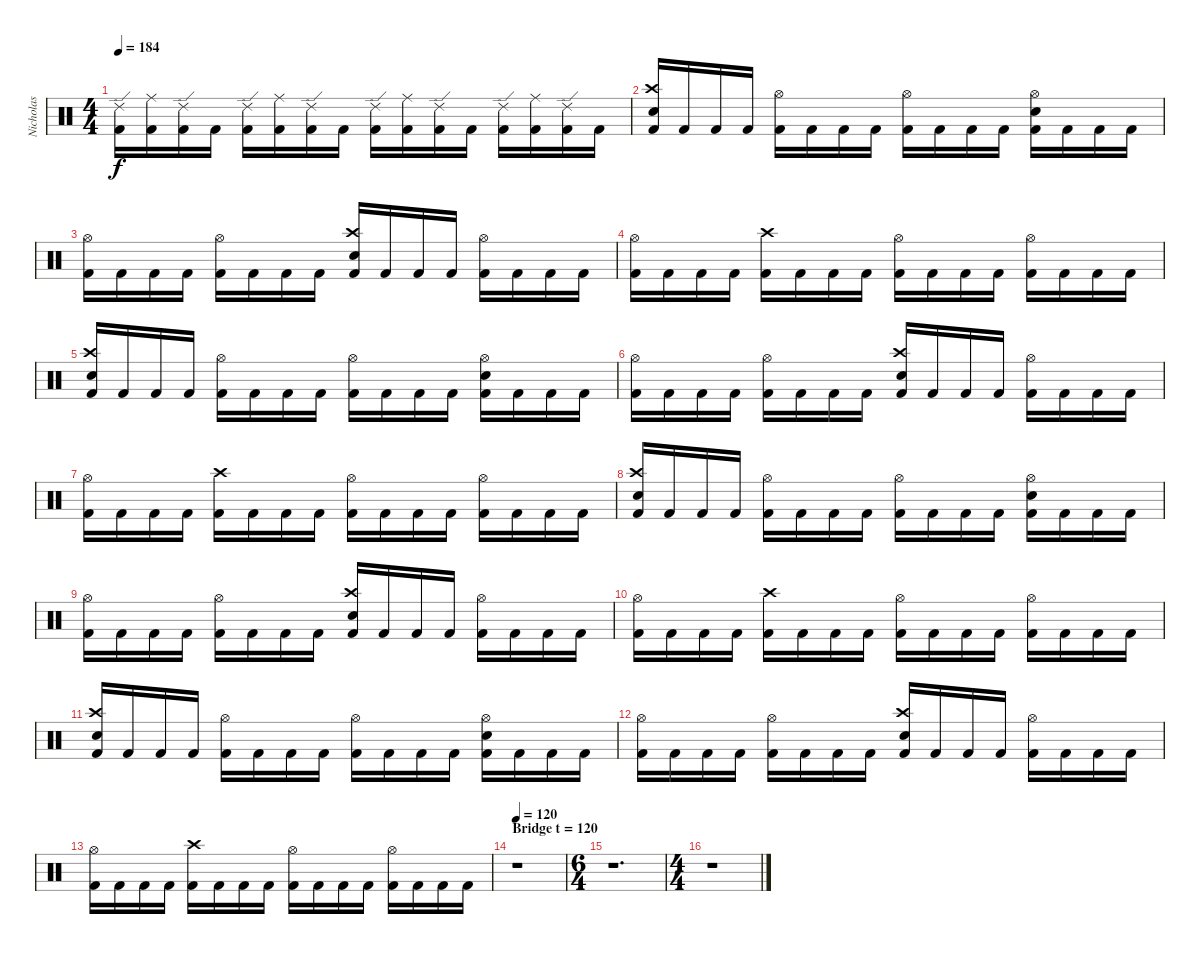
\track ("Nicholas" "Nicholas") {instrument percussion}
\staff {score}
\articulation defaults
\ts (4 4)
\tempo 184
\clef neutral
\ks c
("Ride (edge) 2" "Kick (hit) 2").16{dy f} ("Ride (middle)" "Kick (hit) 2").16 ("Ride (edge) 2" "Kick (hit) 2").16 "Kick (hit) 2".16 ("Ride (edge) 2" "Kick (hit) 2").16 ("Ride (middle)" "Kick (hit) 2").16 ("Ride (edge) 2" "Kick (hit) 2").16 "Kick (hit) 2".16 ("Ride (edge) 2" "Kick (hit) 2").16 ("Ride (middle)" "Kick (hit) 2").16 ("Ride (edge) 2" "Kick (hit) 2").16 "Kick (hit) 2".16 ("Ride (edge) 2" "Kick (hit) 2").16 ("Ride (middle)" "Kick (hit) 2").16 ("Ride (edge) 2" "Kick (hit) 2").16 "Kick (hit) 2".16 |
("Crash high (hit)" "Electric Snare (hit)" "Kick (hit) 2").16 "Kick (hit) 2".16 "Kick (hit) 2".16 "Kick (hit) 2".16 ("Hi-Hat (open)" "Kick (hit) 2").16 "Kick (hit) 2".16 "Kick (hit) 2".16 "Kick (hit) 2".16 ("Hi-Hat (open)" "Kick (hit) 2").16 "Kick (hit) 2".16 "Kick (hit) 2".16 "Kick (hit) 2".16 ("Hi-Hat (open)" "Electric Snare (hit)" "Kick (hit) 2").16 "Kick (hit) 2".16 "Kick (hit) 2".16 "Kick (hit) 2".16 |
("Hi-Hat (open)" "Kick (hit) 2").16 "Kick (hit) 2".16 "Kick (hit) 2".16 "Kick (hit) 2".16 ("Hi-Hat (open)" "Kick (hit) 2").16 "Kick (hit) 2".16 "Kick (hit) 2".16 "Kick (hit) 2".16 ("Crash high (hit)" "Electric Snare (hit)" "Kick (hit) 2").16 "Kick (hit) 2".16 "Kick (hit) 2".16 "Kick (hit) 2".16 ("Hi-Hat (open)" "Kick (hit) 2").16 "Kick (hit) 2".16 "Kick (hit) 2".16 "Kick (hit) 2".16 |
("Hi-Hat (open)" "Kick (hit) 2").16 "Kick (hit) 2".16 "Kick (hit) 2".16 "Kick (hit) 2".16 ("Crash high (hit)" "Kick (hit) 2").16 "Kick (hit) 2".16 "Kick (hit) 2".16 "Kick (hit) 2".16 ("Hi-Hat (open)" "Kick (hit) 2").16 "Kick (hit) 2".16 "Kick (hit) 2".16 "Kick (hit) 2".16 ("Hi-Hat (open)" "Kick (hit) 2").16 "Kick (hit) 2".16 "Kick (hit) 2".16 "Kick (hit) 2".16 |
("Crash high (hit)" "Electric Snare (hit)" "Kick (hit) 2").16 "Kick (hit) 2".16 "Kick (hit) 2".16 "Kick (hit) 2".16 ("Hi-Hat (open)" "Kick (hit) 2").16 "Kick (hit) 2".16 "Kick (hit) 2".16 "Kick (hit) 2".16 ("Hi-Hat (open)" "Kick (hit) 2").16 "Kick (hit) 2".16 "Kick (hit) 2".16 "Kick (hit) 2".16 ("Hi-Hat (open)" "Electric Snare (hit)" "Kick (hit) 2").16 "Kick (hit) 2".16 "Kick (hit) 2".16 "Kick (hit) 2".16 |
("Hi-Hat (open)" "Kick (hit) 2").16 "Kick (hit) 2".16 "Kick (hit) 2".16 "Kick (hit) 2".16 ("Hi-Hat (open)" "Kick (hit) 2").16 "Kick (hit) 2".16 "Kick (hit) 2".16 "Kick (hit) 2".16 ("Crash high (hit)" "Electric Snare (hit)" "Kick (hit) 2").16 "Kick (hit) 2".16 "Kick (hit) 2".16 "Kick (hit) 2".16 ("Hi-Hat (open)" "Kick (hit) 2").16 "Kick (hit) 2".16 "Kick (hit) 2".16 "Kick (hit) 2".16 |
("Hi-Hat (open)" "Kick (hit) 2").16 "Kick (hit) 2".16 "Kick (hit) 2".16 "Kick (hit) 2".16 ("Crash high (hit)" "Kick (hit) 2").16 "Kick (hit) 2".16 "Kick (hit) 2".16 "Kick (hit) 2".16 ("Hi-Hat (open)" "Kick (hit) 2").16 "Kick (hit) 2".16 "Kick (hit) 2".16 "Kick (hit) 2".16 ("Hi-Hat (open)" "Kick (hit) 2").16 "Kick (hit) 2".16 "Kick (hit) 2".16 "Kick (hit) 2".16 |
("Crash high (hit)" "Electric Snare (hit)" "Kick (hit) 2").16 "Kick (hit) 2".16 "Kick (hit) 2".16 "Kick (hit) 2".16 ("Hi-Hat (open)" "Kick (hit) 2").16 "Kick (hit) 2".16 "Kick (hit) 2".16 "Kick (hit) 2".16 ("Hi-Hat (open)" "Kick (hit) 2").16 "Kick (hit) 2".16 "Kick (hit) 2".16 "Kick (hit) 2".16 ("Hi-Hat (open)" "Electric Snare (hit)" "Kick (hit) 2").16 "Kick (hit) 2".16 "Kick (hit) 2".16 "Kick (hit) 2".16 |
("Hi-Hat (open)" "Kick (hit) 2").16 "Kick (hit) 2".16 "Kick (hit) 2".16 "Kick (hit) 2".16 ("Hi-Hat (open)" "Kick (hit) 2").16 "Kick (hit) 2".16 "Kick (hit) 2".16 "Kick (hit) 2".16 ("Crash high (hit)" "Electric Snare (hit)" "Kick (hit) 2").16 "Kick (hit) 2".16 "Kick (hit) 2".16 "Kick (hit) 2".16 ("Hi-Hat (open)" "Kick (hit) 2").16 "Kick (hit) 2".16 "Kick (hit) 2".16 "Kick (hit) 2".16 |
("Hi-Hat (open)" "Kick (hit) 2").16 "Kick (hit) 2".16 "Kick (hit) 2".16 "Kick (hit) 2".16 ("Crash high (hit)" "Kick (hit) 2").16 "Kick (hit) 2".16 "Kick (hit) 2".16 "Kick (hit) 2".16 ("Hi-Hat (open)" "Kick (hit) 2").16 "Kick (hit) 2".16 "Kick (hit) 2".16 "Kick (hit) 2".16 ("Hi-Hat (open)" "Kick (hit) 2").16 "Kick (hit) 2".16 "Kick (hit) 2".16 "Kick (hit) 2".16 |
("Crash high (hit)" "Electric Snare (hit)" "Kick (hit) 2").16 "Kick (hit) 2".16 "Kick (hit) 2".16 "Kick (hit) 2".16 ("Hi-Hat (open)" "Kick (hit) 2").16 "Kick (hit) 2".16 "Kick (hit) 2".16 "Kick (hit) 2".16 ("Hi-Hat (open)" "Kick (hit) 2").16 "Kick (hit) 2".16 "Kick (hit) 2".16 "Kick (hit) 2".16 ("Hi-Hat (open)" "Electric Snare (hit)" "Kick (hit) 2").16 "Kick (hit) 2".16 "Kick (hit) 2".16 "Kick (hit) 2".16 |
("Hi-Hat (open)" "Kick (hit) 2").16 "Kick (hit) 2".16 "Kick (hit) 2".16 "Kick (hit) 2".16 ("Hi-Hat (open)" "Kick (hit) 2").16 "Kick (hit) 2".16 "Kick (hit) 2".16 "Kick (hit) 2".16 ("Crash high (hit)" "Electric Snare (hit)" "Kick (hit) 2").16 "Kick (hit) 2".16 "Kick (hit) 2".16 "Kick (hit) 2".16 ("Hi-Hat (open)" "Kick (hit) 2").16 "Kick (hit) 2".16 "Kick (hit) 2".16 "Kick (hit) 2".16 |
("Hi-Hat (open)" "Kick (hit) 2").16 "Kick (hit) 2".16 "Kick (hit) 2".16 "Kick (hit) 2".16 ("Crash high (hit)" "Kick (hit) 2").16 "Kick (hit) 2".16 "Kick (hit) 2".16 "Kick (hit) 2".16 ("Hi-Hat (open)" "Kick (hit) 2").16 "Kick (hit) 2".16 "Kick (hit) 2".16 "Kick (hit) 2".16 ("Hi-Hat (open)" "Kick (hit) 2").16 "Kick (hit) 2".16 "Kick (hit) 2".16 "Kick (hit) 2".16 |
\section ("" "Bridge t = 120")
\tempo 120
r.1 |
\ts (6 4)
r.1{d} |
\ts (4 4)
r.1
